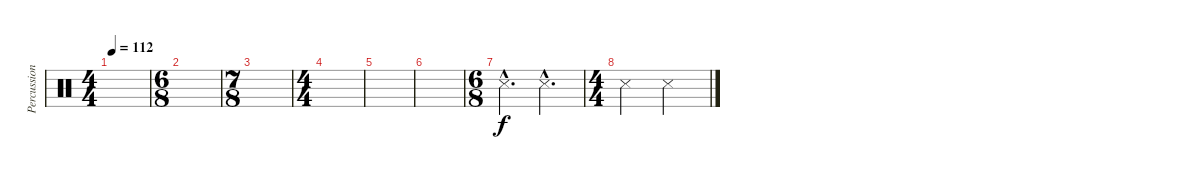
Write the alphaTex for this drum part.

\track ("Percussions" "Percussion") {instrument percussion}
\staff {score}
\articulation defaults
\ts (4 4)
\tempo 112
\clef neutral
\ks c
|
\ts (6 8)
|
\ts (7 8)
|
\ts (4 4)
|
|
|
\ts (6 8)
"Metronome (hit)"{hac}.4{d} "Metronome (hit)"{hac}.4{d} |
\ts (4 4)
"Metronome (hit)".2 "Metronome (hit)".2
